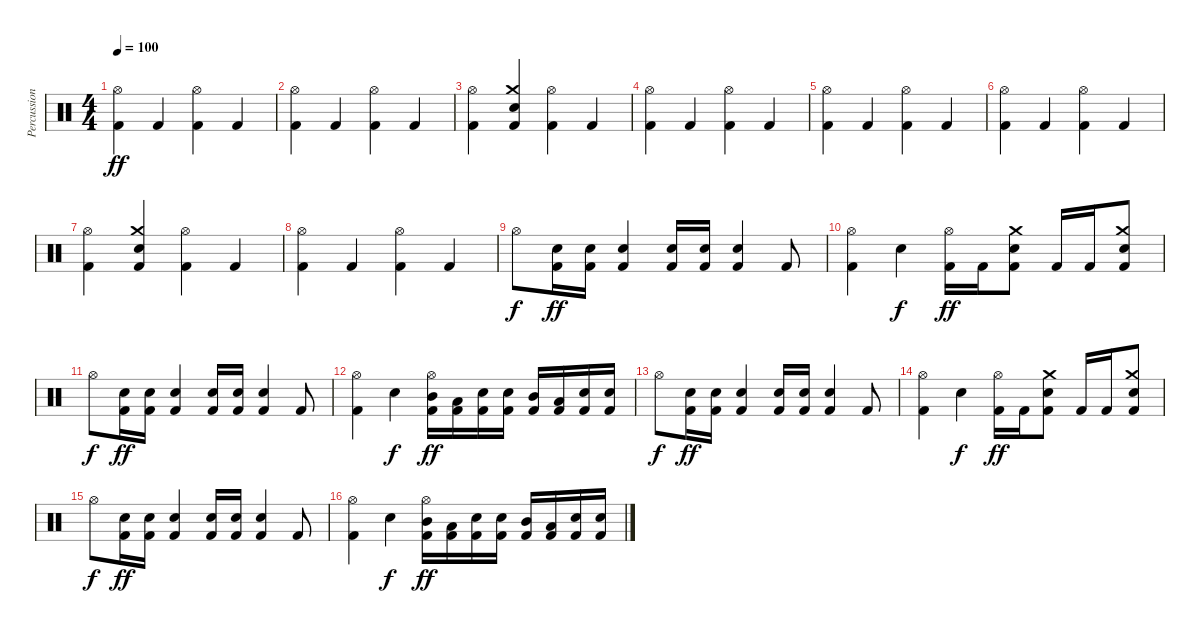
\track ("Percussion" "Percussion") {instrument percussion}
\staff {score}
\articulation defaults
\ts (4 4)
\tempo 100
\clef neutral
\ks c
("Hi-Hat (open)" "Kick (hit) 2").4{dy ff} "Kick (hit) 2".4 ("Hi-Hat (open)" "Kick (hit) 2").4 "Kick (hit) 2".4 |
("Hi-Hat (open)" "Kick (hit) 2").4 "Kick (hit) 2".4 ("Hi-Hat (open)" "Kick (hit) 2").4 "Kick (hit) 2".4 |
("Hi-Hat (open)" "Kick (hit) 2").4 ("Crash medium (hit)" "Electric Snare (hit)" "Kick (hit) 2").4 ("Hi-Hat (open)" "Kick (hit) 2").4 "Kick (hit) 2".4 |
("Hi-Hat (open)" "Kick (hit) 2").4 "Kick (hit) 2".4 ("Hi-Hat (open)" "Kick (hit) 2").4 "Kick (hit) 2".4 |
("Hi-Hat (open)" "Kick (hit) 2").4 "Kick (hit) 2".4 ("Hi-Hat (open)" "Kick (hit) 2").4 "Kick (hit) 2".4 |
("Hi-Hat (open)" "Kick (hit) 2").4 "Kick (hit) 2".4 ("Hi-Hat (open)" "Kick (hit) 2").4 "Kick (hit) 2".4 |
("Hi-Hat (open)" "Kick (hit) 2").4 ("Crash medium (hit)" "Electric Snare (hit)" "Kick (hit) 2").4 ("Hi-Hat (open)" "Kick (hit) 2").4 "Kick (hit) 2".4 |
("Hi-Hat (open)" "Kick (hit) 2").4 "Kick (hit) 2".4 ("Hi-Hat (open)" "Kick (hit) 2").4 "Kick (hit) 2".4 |
"Hi-Hat (open)".8{dy f} ("Electric Snare (hit)" "Kick (hit) 2").16{dy ff} ("Electric Snare (hit)" "Kick (hit) 2").16 ("Electric Snare (hit)" "Kick (hit) 2").4 ("Electric Snare (hit)" "Kick (hit) 2").16 ("Electric Snare (hit)" "Kick (hit) 2").16 ("Electric Snare (hit)" "Kick (hit) 2").4 "Kick (hit) 2".8 |
("Hi-Hat (open)" "Kick (hit) 2").4 "Electric Snare (hit)".4{dy f} ("Hi-Hat (open)" "Kick (hit) 2").16{dy ff} "Kick (hit) 2".16 ("Crash medium (hit)" "Electric Snare (hit)" "Kick (hit) 2").8 "Kick (hit) 2".16 "Kick (hit) 2".16 ("Crash medium (hit)" "Electric Snare (hit)" "Kick (hit) 2").8 |
"Hi-Hat (open)".8{dy f} ("Electric Snare (hit)" "Kick (hit) 2").16{dy ff} ("Electric Snare (hit)" "Kick (hit) 2").16 ("Electric Snare (hit)" "Kick (hit) 2").4 ("Electric Snare (hit)" "Kick (hit) 2").16 ("Electric Snare (hit)" "Kick (hit) 2").16 ("Electric Snare (hit)" "Kick (hit) 2").4 "Kick (hit) 2".8 |
("Hi-Hat (open)" "Kick (hit) 2").4 "Electric Snare (hit)".4{dy f} ("Hi-Hat (open)" "Mid Tom (hit)" "Kick (hit) 2").16{dy ff} ("Low Tom (hit)" "Kick (hit) 2").16 ("Electric Snare (hit)" "Kick (hit) 2").16 ("Electric Snare (hit)" "Kick (hit) 2").16 ("Mid Tom (hit)" "Kick (hit) 2").16 ("Low Tom (hit)" "Kick (hit) 2").16 ("Electric Snare (hit)" "Kick (hit) 2").16 ("Electric Snare (hit)" "Kick (hit) 2").16 |
"Hi-Hat (open)".8{dy f} ("Electric Snare (hit)" "Kick (hit) 2").16{dy ff} ("Electric Snare (hit)" "Kick (hit) 2").16 ("Electric Snare (hit)" "Kick (hit) 2").4 ("Electric Snare (hit)" "Kick (hit) 2").16 ("Electric Snare (hit)" "Kick (hit) 2").16 ("Electric Snare (hit)" "Kick (hit) 2").4 "Kick (hit) 2".8 |
("Hi-Hat (open)" "Kick (hit) 2").4 "Electric Snare (hit)".4{dy f} ("Hi-Hat (open)" "Kick (hit) 2").16{dy ff} "Kick (hit) 2".16 ("Crash medium (hit)" "Electric Snare (hit)" "Kick (hit) 2").8 "Kick (hit) 2".16 "Kick (hit) 2".16 ("Crash medium (hit)" "Electric Snare (hit)" "Kick (hit) 2").8 |
"Hi-Hat (open)".8{dy f} ("Electric Snare (hit)" "Kick (hit) 2").16{dy ff} ("Electric Snare (hit)" "Kick (hit) 2").16 ("Electric Snare (hit)" "Kick (hit) 2").4 ("Electric Snare (hit)" "Kick (hit) 2").16 ("Electric Snare (hit)" "Kick (hit) 2").16 ("Electric Snare (hit)" "Kick (hit) 2").4 "Kick (hit) 2".8 |
("Hi-Hat (open)" "Kick (hit) 2").4 "Electric Snare (hit)".4{dy f} ("Hi-Hat (open)" "Mid Tom (hit)" "Kick (hit) 2").16{dy ff} ("Low Tom (hit)" "Kick (hit) 2").16 ("Electric Snare (hit)" "Kick (hit) 2").16 ("Electric Snare (hit)" "Kick (hit) 2").16 ("Mid Tom (hit)" "Kick (hit) 2").16 ("Low Tom (hit)" "Kick (hit) 2").16 ("Electric Snare (hit)" "Kick (hit) 2").16 ("Electric Snare (hit)" "Kick (hit) 2").16
